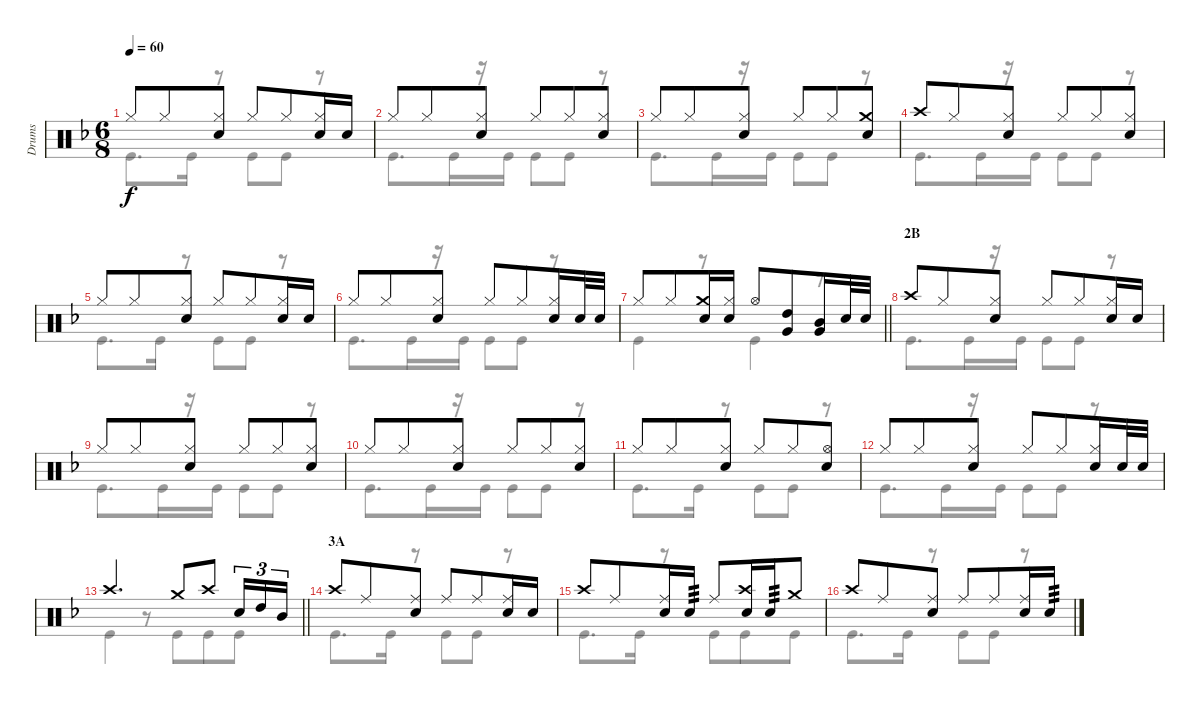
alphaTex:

\track ("Drums" "Drums") {instrument percussion}
\staff {score}
\articulation defaults
\voice
\ts (6 8)
\tempo 60
\clef neutral
\ks f "Hi-Hat (closed)".8{dy f} "Hi-Hat (closed)".8
("Hi-Hat (closed)" "Snare (hit) 2").8 "Hi-Hat (closed)".8 "Hi-Hat (closed)".8 ("Hi-Hat (closed)" "Snare (hit) 2").16 "Snare (hit) 2".16 |
"Hi-Hat (closed)".8 "Hi-Hat (closed)".8 ("Hi-Hat (closed)" "Snare (hit) 2").8 "Hi-Hat (closed)".8 "Hi-Hat (closed)".8 ("Hi-Hat (closed)" "Snare (hit) 2").8 |
"Hi-Hat (closed)".8 "Hi-Hat (closed)".8 ("Hi-Hat (closed)" "Snare (hit) 2").8 "Hi-Hat (closed)".8 "Hi-Hat (closed)".8 ("Crash medium (hit)" "Snare (hit) 2").8 |
"Crash high (hit)".8 "Hi-Hat (closed)".8 ("Hi-Hat (closed)" "Snare (hit) 2").8 "Hi-Hat (closed)".8 "Hi-Hat (closed)".8 ("Hi-Hat (closed)" "Snare (hit) 2").8 |
"Hi-Hat (closed)".8 "Hi-Hat (closed)".8 ("Hi-Hat (closed)" "Snare (hit) 2").8 "Hi-Hat (closed)".8 "Hi-Hat (closed)".8 ("Hi-Hat (closed)" "Snare (hit) 2").16 "Snare (hit) 2".16 |
"Hi-Hat (closed)".8 "Hi-Hat (closed)".8 ("Hi-Hat (closed)" "Snare (hit) 2").8 "Hi-Hat (closed)".8 "Hi-Hat (closed)".8 ("Hi-Hat (closed)" "Snare (hit) 2").16 "Snare (hit) 2".32 "Snare (hit) 2".32 |
\barLineRight lightlight "Hi-Hat (closed)".8 "Hi-Hat (closed)".8
("Crash medium (hit)" "Snare (hit) 2").16 ("Hi-Hat (closed)" "Snare (hit) 2").16 "Hi-Hat (open)".8 ("High Tom (hit)" "Very Low Tom (hit)").8 ("Mid Tom (hit)" "Very Low Tom (hit)").16 "Snare (hit) 2".32 "Snare (hit) 2".32 |
\section ("" "2B")
"Crash high (hit)".8 "Hi-Hat (closed)".8 ("Hi-Hat (closed)" "Snare (hit) 2").8 "Hi-Hat (closed)".8 "Hi-Hat (closed)".8 ("Hi-Hat (closed)" "Snare (hit) 2").16 "Snare (hit) 2".16 |
"Hi-Hat (closed)".8 "Hi-Hat (closed)".8 ("Hi-Hat (closed)" "Snare (hit) 2").8 "Hi-Hat (closed)".8 "Hi-Hat (closed)".8 ("Hi-Hat (closed)" "Snare (hit) 2").8 |
"Hi-Hat (closed)".8 "Hi-Hat (closed)".8 ("Hi-Hat (closed)" "Snare (hit) 2").8 "Hi-Hat (closed)".8 "Hi-Hat (closed)".8 ("Hi-Hat (closed)" "Snare (hit) 2").8 |
"Hi-Hat (closed)".8 "Hi-Hat (closed)".8 ("Hi-Hat (closed)" "Snare (hit) 2").8 "Hi-Hat (closed)".8 "Hi-Hat (closed)".8 ("Hi-Hat (open)" "Snare (hit) 2").8 |
"Hi-Hat (closed)".8 "Hi-Hat (closed)".8 ("Hi-Hat (closed)" "Snare (hit) 2").8 "Hi-Hat (closed)".8 "Hi-Hat (closed)".8 ("Hi-Hat (closed)" "Snare (hit) 2").16 "Snare (hit) 2".32 "Snare (hit) 2".32 |
\barLineRight lightlight "Crash high (hit)".4{d} "Crash medium (hit)".8 "Crash high (hit)".8 "Snare (hit) 2".16{tu (3 2)} "High Tom (hit)".16{tu (3 2)} "Mid Tom (hit)".16{tu (3 2)}
|
\section ("" "3A")
"Crash high (hit)".8 "Ride (middle)".8 ("Ride (middle)" "Snare (hit) 2").8 "Ride (middle)".8 "Ride (middle)".8 ("Ride (middle)" "Snare (hit) 2").16 "Snare (hit) 2".16 |
"Crash high (hit)".8 "Ride (middle)".8 ("Ride (middle)" "Snare (hit) 2").16 "Snare (hit) 2".16{tp 3} "Ride (middle)".8 ("Crash high (hit)" "Snare (hit) 2").16 "Snare (hit) 2".16{tp 3} "Crash medium (hit)".8 |
"Crash high (hit)".8 "Ride (middle)".8 ("Ride (middle)" "Snare (hit) 2").8 "Ride (middle)".8 "Ride (middle)".8 ("Ride (middle)" "Snare (hit) 2").16 "Snare (hit) 2".16{tp 3}
\voice
\clef neutral
\ottava regular
\simile none
\ks f "Kick (hit)".8{d dy f} "Kick (hit)".16
r.8 "Kick (hit)".8 "Kick (hit)".8 r.8 |
"Kick (hit)".8{d} "Kick (hit)".16 r.16 "Kick (hit)".16 "Kick (hit)".8 "Kick (hit)".8 r.8 |
"Kick (hit)".8{d} "Kick (hit)".16 r.16 "Kick (hit)".16 "Kick (hit)".8 "Kick (hit)".8 r.8 |
"Kick (hit)".8{d} "Kick (hit)".16 r.16 "Kick (hit)".16 "Kick (hit)".8 "Kick (hit)".8 r.8 |
"Kick (hit)".8{d} "Kick (hit)".16 r.8 "Kick (hit)".8 "Kick (hit)".8 r.8 |
"Kick (hit)".8{d} "Kick (hit)".16 r.16 "Kick (hit)".16 "Kick (hit)".8 "Kick (hit)".8 r.8 |
\barLineRight lightlight "Kick (hit)".4
r.8 "Kick (hit)".4 r.8 |
"Kick (hit)".8{d} "Kick (hit)".16 r.16 "Kick (hit)".16 "Kick (hit)".8 "Kick (hit)".8 r.8 |
"Kick (hit)".8{d} "Kick (hit)".16 r.16 "Kick (hit)".16 "Kick (hit)".8 "Kick (hit)".8 r.8 |
"Kick (hit)".8{d} "Kick (hit)".16 r.16 "Kick (hit)".16 "Kick (hit)".8 "Kick (hit)".8 r.8 |
"Kick (hit)".8{d} "Kick (hit)".16 r.8 "Kick (hit)".8 "Kick (hit)".8 r.8 |
"Kick (hit)".8{d} "Kick (hit)".16 r.16 "Kick (hit)".16 "Kick (hit)".8 "Kick (hit)".8 r.8 |
\barLineRight lightlight "Kick (hit)".4
r.8 "Kick (hit)".8 "Kick (hit)".8 "Kick (hit)".8 |
"Kick (hit)".8{d} "Kick (hit)".16 r.8 "Kick (hit)".8 "Kick (hit)".8 r.8 |
"Kick (hit)".8{d} "Kick (hit)".16 r.8 "Kick (hit)".8 "Kick (hit)".8 "Kick (hit)".8 |
"Kick (hit)".8{d} "Kick (hit)".16 r.8 "Kick (hit)".8 "Kick (hit)".8 r.8
